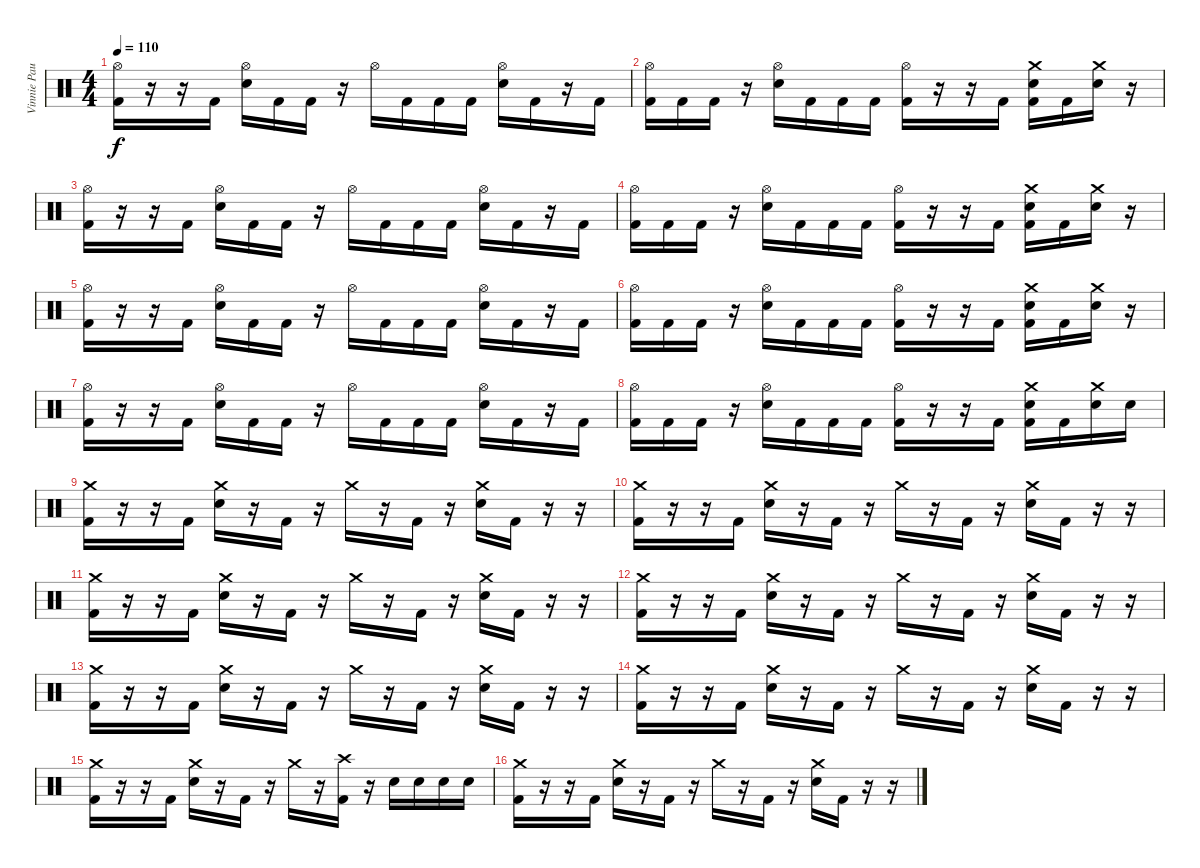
\track ("Vinnie Paul" "Vinnie Pau") {instrument percussion}
\staff {score}
\articulation defaults
\ts (4 4)
\tempo 110
\clef neutral
\ks c
("Hi-Hat (open)" "Kick (hit) 2").16{dy f} r.16 r.16 "Kick (hit) 2".16 ("Hi-Hat (open)" "Electric Snare (hit)").16 "Kick (hit) 2".16 "Kick (hit) 2".16 r.16 "Hi-Hat (open)".16 "Kick (hit) 2".16 "Kick (hit) 2".16 "Kick (hit) 2".16 ("Hi-Hat (open)" "Electric Snare (hit)").16 "Kick (hit) 2".16 r.16 "Kick (hit) 2".16 |
("Hi-Hat (open)" "Kick (hit) 2").16 "Kick (hit) 2".16 "Kick (hit) 2".16 r.16 ("Hi-Hat (open)" "Electric Snare (hit)").16 "Kick (hit) 2".16 "Kick (hit) 2".16 "Kick (hit) 2".16 ("Hi-Hat (open)" "Kick (hit) 2").16 r.16 r.16 "Kick (hit) 2".16 ("Crash medium (hit)" "Electric Snare (hit)" "Kick (hit) 2").16 "Kick (hit) 2".16 ("Crash medium (hit)" "Electric Snare (hit)").16 r.16 |
("Hi-Hat (open)" "Kick (hit) 2").16 r.16 r.16 "Kick (hit) 2".16 ("Hi-Hat (open)" "Electric Snare (hit)").16 "Kick (hit) 2".16 "Kick (hit) 2".16 r.16 "Hi-Hat (open)".16 "Kick (hit) 2".16 "Kick (hit) 2".16 "Kick (hit) 2".16 ("Hi-Hat (open)" "Electric Snare (hit)").16 "Kick (hit) 2".16 r.16 "Kick (hit) 2".16 |
("Hi-Hat (open)" "Kick (hit) 2").16 "Kick (hit) 2".16 "Kick (hit) 2".16 r.16 ("Hi-Hat (open)" "Electric Snare (hit)").16 "Kick (hit) 2".16 "Kick (hit) 2".16 "Kick (hit) 2".16 ("Hi-Hat (open)" "Kick (hit) 2").16 r.16 r.16 "Kick (hit) 2".16 ("Crash medium (hit)" "Electric Snare (hit)" "Kick (hit) 2").16 "Kick (hit) 2".16 ("Crash medium (hit)" "Electric Snare (hit)").16 r.16 |
("Hi-Hat (open)" "Kick (hit) 2").16 r.16 r.16 "Kick (hit) 2".16 ("Hi-Hat (open)" "Electric Snare (hit)").16 "Kick (hit) 2".16 "Kick (hit) 2".16 r.16 "Hi-Hat (open)".16 "Kick (hit) 2".16 "Kick (hit) 2".16 "Kick (hit) 2".16 ("Hi-Hat (open)" "Electric Snare (hit)").16 "Kick (hit) 2".16 r.16 "Kick (hit) 2".16 |
("Hi-Hat (open)" "Kick (hit) 2").16 "Kick (hit) 2".16 "Kick (hit) 2".16 r.16 ("Hi-Hat (open)" "Electric Snare (hit)").16 "Kick (hit) 2".16 "Kick (hit) 2".16 "Kick (hit) 2".16 ("Hi-Hat (open)" "Kick (hit) 2").16 r.16 r.16 "Kick (hit) 2".16 ("Crash medium (hit)" "Electric Snare (hit)" "Kick (hit) 2").16 "Kick (hit) 2".16 ("Crash medium (hit)" "Electric Snare (hit)").16 r.16 |
("Hi-Hat (open)" "Kick (hit) 2").16 r.16 r.16 "Kick (hit) 2".16 ("Hi-Hat (open)" "Electric Snare (hit)").16 "Kick (hit) 2".16 "Kick (hit) 2".16 r.16 "Hi-Hat (open)".16 "Kick (hit) 2".16 "Kick (hit) 2".16 "Kick (hit) 2".16 ("Hi-Hat (open)" "Electric Snare (hit)").16 "Kick (hit) 2".16 r.16 "Kick (hit) 2".16 |
("Hi-Hat (open)" "Kick (hit) 2").16 "Kick (hit) 2".16 "Kick (hit) 2".16 r.16 ("Hi-Hat (open)" "Electric Snare (hit)").16 "Kick (hit) 2".16 "Kick (hit) 2".16 "Kick (hit) 2".16 ("Hi-Hat (open)" "Kick (hit) 2").16 r.16 r.16 "Kick (hit) 2".16 ("Crash medium (hit)" "Electric Snare (hit)" "Kick (hit) 2").16 "Kick (hit) 2".16 ("Crash medium (hit)" "Electric Snare (hit)").16 "Electric Snare (hit)".16 |
("Crash medium (hit)" "Kick (hit) 2").16 r.16 r.16 "Kick (hit) 2".16 ("Crash medium (hit)" "Electric Snare (hit)").16 r.16 "Kick (hit) 2".16 r.16 "Crash medium (hit)".16 r.16 "Kick (hit) 2".16 r.16 ("Crash medium (hit)" "Electric Snare (hit)").16 "Kick (hit) 2".16 r.16 r.16 |
("Crash medium (hit)" "Kick (hit) 2").16 r.16 r.16 "Kick (hit) 2".16 ("Crash medium (hit)" "Electric Snare (hit)").16 r.16 "Kick (hit) 2".16 r.16 "Crash medium (hit)".16 r.16 "Kick (hit) 2".16 r.16 ("Crash medium (hit)" "Electric Snare (hit)").16 "Kick (hit) 2".16 r.16 r.16 |
("Crash medium (hit)" "Kick (hit) 2").16 r.16 r.16 "Kick (hit) 2".16 ("Crash medium (hit)" "Electric Snare (hit)").16 r.16 "Kick (hit) 2".16 r.16 "Crash medium (hit)".16 r.16 "Kick (hit) 2".16 r.16 ("Crash medium (hit)" "Electric Snare (hit)").16 "Kick (hit) 2".16 r.16 r.16 |
("Crash medium (hit)" "Kick (hit) 2").16 r.16 r.16 "Kick (hit) 2".16 ("Crash medium (hit)" "Electric Snare (hit)").16 r.16 "Kick (hit) 2".16 r.16 "Crash medium (hit)".16 r.16 "Kick (hit) 2".16 r.16 ("Crash medium (hit)" "Electric Snare (hit)").16 "Kick (hit) 2".16 r.16 r.16 |
("Crash medium (hit)" "Kick (hit) 2").16 r.16 r.16 "Kick (hit) 2".16 ("Crash medium (hit)" "Electric Snare (hit)").16 r.16 "Kick (hit) 2".16 r.16 "Crash medium (hit)".16 r.16 "Kick (hit) 2".16 r.16 ("Crash medium (hit)" "Electric Snare (hit)").16 "Kick (hit) 2".16 r.16 r.16 |
("Crash medium (hit)" "Kick (hit) 2").16 r.16 r.16 "Kick (hit) 2".16 ("Crash medium (hit)" "Electric Snare (hit)").16 r.16 "Kick (hit) 2".16 r.16 "Crash medium (hit)".16 r.16 "Kick (hit) 2".16 r.16 ("Crash medium (hit)" "Electric Snare (hit)").16 "Kick (hit) 2".16 r.16 r.16 |
("Crash medium (hit)" "Kick (hit) 2").16 r.16 r.16 "Kick (hit) 2".16 ("Crash medium (hit)" "Electric Snare (hit)").16 r.16 "Kick (hit) 2".16 r.16 "Crash medium (hit)".16 r.16 ("Crash high (hit)" "Kick (hit) 2").16 r.16 "Electric Snare (hit)".16 "Electric Snare (hit)".16 "Electric Snare (hit)".16 "Electric Snare (hit)".16 |
("Crash medium (hit)" "Kick (hit) 2").16 r.16 r.16 "Kick (hit) 2".16 ("Crash medium (hit)" "Electric Snare (hit)").16 r.16 "Kick (hit) 2".16 r.16 "Crash medium (hit)".16 r.16 "Kick (hit) 2".16 r.16 ("Crash medium (hit)" "Electric Snare (hit)").16 "Kick (hit) 2".16 r.16 r.16
